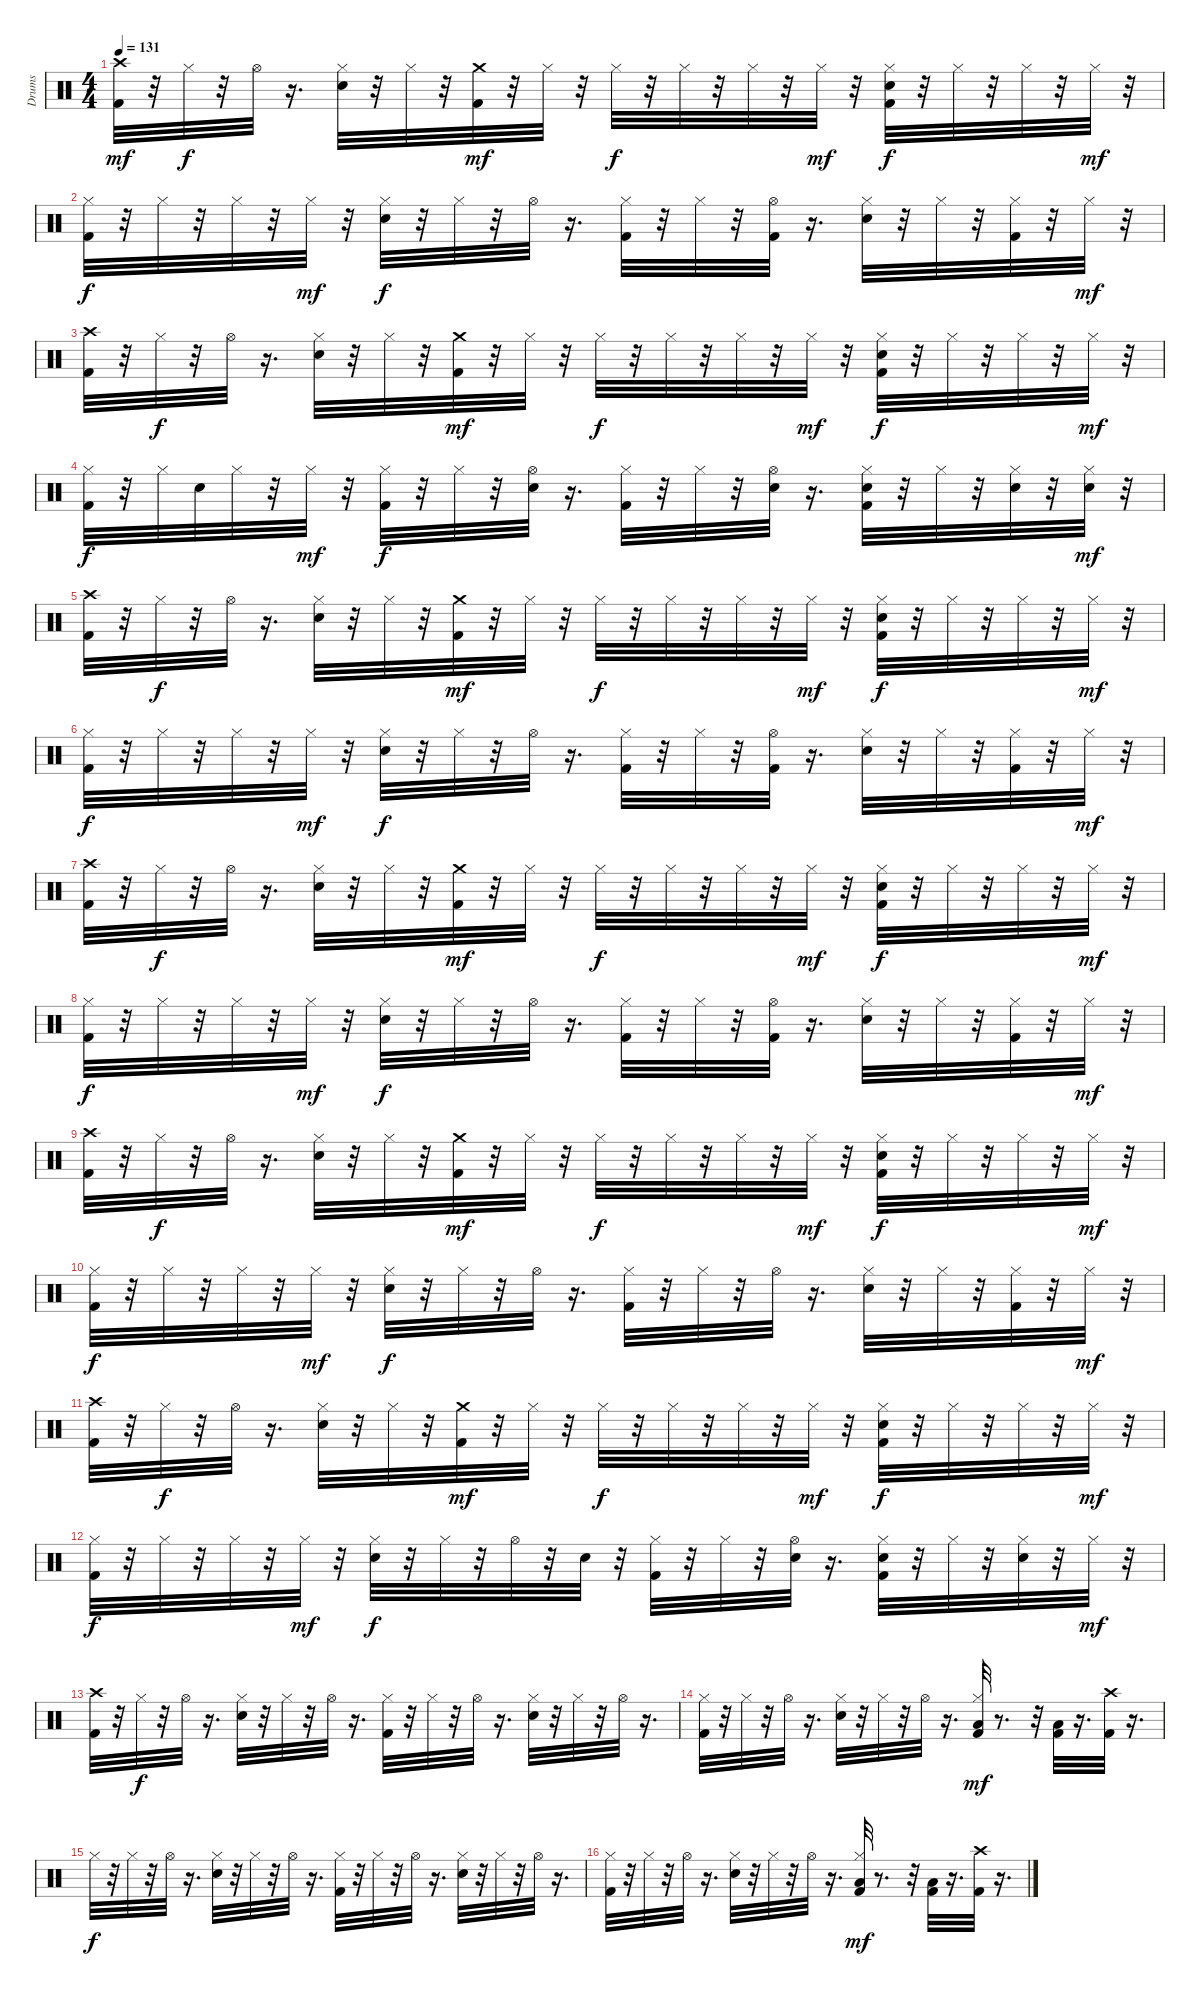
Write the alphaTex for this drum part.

\track ("Drums" "Drums") {instrument percussion}
\staff {score}
\articulation defaults
\ts (4 4)
\tempo 131
\clef neutral
\ks c
("Kick (hit) 2" "Crash high (hit)").32{dy mf} r.32 "Hi-Hat (closed)".32{dy f} r.32 "Hi-Hat (open)".32 r.16{d} ("Snare (hit) 2" "Hi-Hat (closed)").32 r.32 "Hi-Hat (closed)".32 r.32 ("Crash medium (hit)" "Kick (hit) 2").32{dy mf} r.32 "Hi-Hat (closed)".32 r.32 "Hi-Hat (closed)".32{dy f} r.32 "Hi-Hat (closed)".32 r.32 "Hi-Hat (closed)".32 r.32 "Hi-Hat (closed)".32{dy mf} r.32 ("Snare (hit) 2" "Hi-Hat (closed)" "Kick (hit) 2").32{dy f} r.32 "Hi-Hat (closed)".32 r.32 "Hi-Hat (closed)".32 r.32 "Hi-Hat (closed)".32{dy mf} r.32 |
("Kick (hit) 2" "Hi-Hat (closed)").32{dy f} r.32 "Hi-Hat (closed)".32 r.32 "Hi-Hat (closed)".32 r.32 "Hi-Hat (closed)".32{dy mf} r.32 ("Hi-Hat (closed)" "Snare (hit) 2").32{dy f} r.32 "Hi-Hat (closed)".32 r.32 "Hi-Hat (open)".32 r.16{d} ("Hi-Hat (closed)" "Kick (hit) 2").32 r.32 "Hi-Hat (closed)".32 r.32 ("Hi-Hat (open)" "Kick (hit) 2").32 r.16{d} ("Hi-Hat (closed)" "Snare (hit) 2").32 r.32 "Hi-Hat (closed)".32 r.32 ("Hi-Hat (closed)" "Kick (hit) 2").32 r.32 "Hi-Hat (closed)".32{dy mf} r.32 |
("Kick (hit) 2" "Crash high (hit)").32 r.32 "Hi-Hat (closed)".32{dy f} r.32 "Hi-Hat (open)".32 r.16{d} ("Snare (hit) 2" "Hi-Hat (closed)").32 r.32 "Hi-Hat (closed)".32 r.32 ("Crash medium (hit)" "Kick (hit) 2").32{dy mf} r.32 "Hi-Hat (closed)".32 r.32 "Hi-Hat (closed)".32{dy f} r.32 "Hi-Hat (closed)".32 r.32 "Hi-Hat (closed)".32 r.32 "Hi-Hat (closed)".32{dy mf} r.32 ("Snare (hit) 2" "Hi-Hat (closed)" "Kick (hit) 2").32{dy f} r.32 "Hi-Hat (closed)".32 r.32 "Hi-Hat (closed)".32 r.32 "Hi-Hat (closed)".32{dy mf} r.32 |
("Hi-Hat (closed)" "Kick (hit) 2").32{dy f} r.32 "Hi-Hat (closed)".32 "Snare (hit) 2".32 "Hi-Hat (closed)".32 r.32 "Hi-Hat (closed)".32{dy mf} r.32 ("Hi-Hat (closed)" "Kick (hit) 2").32{dy f} r.32 "Hi-Hat (closed)".32 r.32 ("Snare (hit) 2" "Hi-Hat (open)").32 r.16{d} ("Hi-Hat (closed)" "Kick (hit) 2").32 r.32 "Hi-Hat (closed)".32 r.32 ("Snare (hit) 2" "Hi-Hat (open)").32 r.16{d} ("Snare (hit) 2" "Hi-Hat (closed)" "Kick (hit) 2").32 r.32 "Hi-Hat (closed)".32 r.32 ("Snare (hit) 2" "Hi-Hat (closed)").32 r.32 ("Snare (hit) 2" "Hi-Hat (closed)").32{dy mf} r.32 |
("Kick (hit) 2" "Crash high (hit)").32 r.32 "Hi-Hat (closed)".32{dy f} r.32 "Hi-Hat (open)".32 r.16{d} ("Snare (hit) 2" "Hi-Hat (closed)").32 r.32 "Hi-Hat (closed)".32 r.32 ("Crash medium (hit)" "Kick (hit) 2").32{dy mf} r.32 "Hi-Hat (closed)".32 r.32 "Hi-Hat (closed)".32{dy f} r.32 "Hi-Hat (closed)".32 r.32 "Hi-Hat (closed)".32 r.32 "Hi-Hat (closed)".32{dy mf} r.32 ("Snare (hit) 2" "Hi-Hat (closed)" "Kick (hit) 2").32{dy f} r.32 "Hi-Hat (closed)".32 r.32 "Hi-Hat (closed)".32 r.32 "Hi-Hat (closed)".32{dy mf} r.32 |
("Kick (hit) 2" "Hi-Hat (closed)").32{dy f} r.32 "Hi-Hat (closed)".32 r.32 "Hi-Hat (closed)".32 r.32 "Hi-Hat (closed)".32{dy mf} r.32 ("Hi-Hat (closed)" "Snare (hit) 2").32{dy f} r.32 "Hi-Hat (closed)".32 r.32 "Hi-Hat (open)".32 r.16{d} ("Hi-Hat (closed)" "Kick (hit) 2").32 r.32 "Hi-Hat (closed)".32 r.32 ("Hi-Hat (open)" "Kick (hit) 2").32 r.16{d} ("Hi-Hat (closed)" "Snare (hit) 2").32 r.32 "Hi-Hat (closed)".32 r.32 ("Hi-Hat (closed)" "Kick (hit) 2").32 r.32 "Hi-Hat (closed)".32{dy mf} r.32 |
("Kick (hit) 2" "Crash high (hit)").32 r.32 "Hi-Hat (closed)".32{dy f} r.32 "Hi-Hat (open)".32 r.16{d} ("Snare (hit) 2" "Hi-Hat (closed)").32 r.32 "Hi-Hat (closed)".32 r.32 ("Crash medium (hit)" "Kick (hit) 2").32{dy mf} r.32 "Hi-Hat (closed)".32 r.32 "Hi-Hat (closed)".32{dy f} r.32 "Hi-Hat (closed)".32 r.32 "Hi-Hat (closed)".32 r.32 "Hi-Hat (closed)".32{dy mf} r.32 ("Snare (hit) 2" "Hi-Hat (closed)" "Kick (hit) 2").32{dy f} r.32 "Hi-Hat (closed)".32 r.32 "Hi-Hat (closed)".32 r.32 "Hi-Hat (closed)".32{dy mf} r.32 |
("Kick (hit) 2" "Hi-Hat (closed)").32{dy f} r.32 "Hi-Hat (closed)".32 r.32 "Hi-Hat (closed)".32 r.32 "Hi-Hat (closed)".32{dy mf} r.32 ("Hi-Hat (closed)" "Snare (hit) 2").32{dy f} r.32 "Hi-Hat (closed)".32 r.32 "Hi-Hat (open)".32 r.16{d} ("Hi-Hat (closed)" "Kick (hit) 2").32 r.32 "Hi-Hat (closed)".32 r.32 ("Hi-Hat (open)" "Kick (hit) 2").32 r.16{d} ("Hi-Hat (closed)" "Snare (hit) 2").32 r.32 "Hi-Hat (closed)".32 r.32 ("Hi-Hat (closed)" "Kick (hit) 2").32 r.32 "Hi-Hat (closed)".32{dy mf} r.32 |
("Kick (hit) 2" "Crash high (hit)").32 r.32 "Hi-Hat (closed)".32{dy f} r.32 "Hi-Hat (open)".32 r.16{d} ("Snare (hit) 2" "Hi-Hat (closed)").32 r.32 "Hi-Hat (closed)".32 r.32 ("Crash medium (hit)" "Kick (hit) 2").32{dy mf} r.32 "Hi-Hat (closed)".32 r.32 "Hi-Hat (closed)".32{dy f} r.32 "Hi-Hat (closed)".32 r.32 "Hi-Hat (closed)".32 r.32 "Hi-Hat (closed)".32{dy mf} r.32 ("Snare (hit) 2" "Hi-Hat (closed)" "Kick (hit) 2").32{dy f} r.32 "Hi-Hat (closed)".32 r.32 "Hi-Hat (closed)".32 r.32 "Hi-Hat (closed)".32{dy mf} r.32 |
("Kick (hit) 2" "Hi-Hat (closed)").32{dy f} r.32 "Hi-Hat (closed)".32 r.32 "Hi-Hat (closed)".32 r.32 "Hi-Hat (closed)".32{dy mf} r.32 ("Hi-Hat (closed)" "Snare (hit) 2").32{dy f} r.32 "Hi-Hat (closed)".32 r.32 "Hi-Hat (open)".32 r.16{d} ("Hi-Hat (closed)" "Kick (hit) 2").32 r.32 "Hi-Hat (closed)".32 r.32 "Hi-Hat (open)".32 r.16{d} ("Hi-Hat (closed)" "Snare (hit) 2").32 r.32 "Hi-Hat (closed)".32 r.32 ("Hi-Hat (closed)" "Kick (hit) 2").32 r.32 "Hi-Hat (closed)".32{dy mf} r.32 |
("Kick (hit) 2" "Crash high (hit)").32 r.32 "Hi-Hat (closed)".32{dy f} r.32 "Hi-Hat (open)".32 r.16{d} ("Snare (hit) 2" "Hi-Hat (closed)").32 r.32 "Hi-Hat (closed)".32 r.32 ("Crash medium (hit)" "Kick (hit) 2").32{dy mf} r.32 "Hi-Hat (closed)".32 r.32 "Hi-Hat (closed)".32{dy f} r.32 "Hi-Hat (closed)".32 r.32 "Hi-Hat (closed)".32 r.32 "Hi-Hat (closed)".32{dy mf} r.32 ("Snare (hit) 2" "Hi-Hat (closed)" "Kick (hit) 2").32{dy f} r.32 "Hi-Hat (closed)".32 r.32 "Hi-Hat (closed)".32 r.32 "Hi-Hat (closed)".32{dy mf} r.32 |
("Kick (hit) 2" "Hi-Hat (closed)").32{dy f} r.32 "Hi-Hat (closed)".32 r.32 "Hi-Hat (closed)".32 r.32 "Hi-Hat (closed)".32{dy mf} r.32 ("Hi-Hat (closed)" "Snare (hit) 2").32{dy f} r.32 "Hi-Hat (closed)".32 r.32 "Hi-Hat (open)".32 r.32 "Snare (hit) 2".32 r.32 ("Hi-Hat (closed)" "Kick (hit) 2").32 r.32 "Hi-Hat (closed)".32 r.32 ("Snare (hit) 2" "Hi-Hat (open)").32 r.16{d} ("Hi-Hat (closed)" "Kick (hit) 2" "Snare (hit) 2").32 r.32 "Hi-Hat (closed)".32 r.32 ("Snare (hit) 2" "Hi-Hat (closed)").32 r.32 "Hi-Hat (closed)".32{dy mf} r.32 |
("Crash high (hit)" "Kick (hit) 2").32 r.32 "Hi-Hat (closed)".32{dy f} r.32 "Hi-Hat (open)".32 r.16{d} ("Hi-Hat (closed)" "Snare (hit) 2").32 r.32 "Hi-Hat (closed)".32 r.32 "Hi-Hat (open)".32 r.16{d} ("Hi-Hat (closed)" "Kick (hit) 2").32 r.32 "Hi-Hat (closed)".32 r.32 "Hi-Hat (open)".32 r.16{d} ("Snare (hit) 2" "Hi-Hat (closed)").32 r.32 "Hi-Hat (closed)".32 r.32 "Hi-Hat (open)".32 r.16{d} |
("Kick (hit) 2" "Hi-Hat (closed)").32 r.32 "Hi-Hat (closed)".32 r.32 "Hi-Hat (open)".32 r.16{d} ("Snare (hit) 2" "Hi-Hat (closed)").32 r.32 "Hi-Hat (closed)".32 r.32 "Hi-Hat (open)".32 r.16{d} ("Low Floor Tom (hit)" "Kick (hit) 2" "Hi-Hat (closed)").32{dy mf} r.8{d} r.32 ("Low Floor Tom (hit)" "Kick (hit) 2").32 r.16{d} ("Kick (hit) 2" "Crash high (hit)").32 r.16{d} |
"Hi-Hat (closed)".32{dy f} r.32 "Hi-Hat (closed)".32 r.32 "Hi-Hat (open)".32 r.16{d} ("Hi-Hat (closed)" "Snare (hit) 2").32 r.32 "Hi-Hat (closed)".32 r.32 "Hi-Hat (open)".32 r.16{d} ("Hi-Hat (closed)" "Kick (hit) 2").32 r.32 "Hi-Hat (closed)".32 r.32 "Hi-Hat (open)".32 r.16{d} ("Snare (hit) 2" "Hi-Hat (closed)").32 r.32 "Hi-Hat (closed)".32 r.32 "Hi-Hat (open)".32 r.16{d} |
("Kick (hit) 2" "Hi-Hat (closed)").32 r.32 "Hi-Hat (closed)".32 r.32 "Hi-Hat (open)".32 r.16{d} ("Snare (hit) 2" "Hi-Hat (closed)").32 r.32 "Hi-Hat (closed)".32 r.32 "Hi-Hat (open)".32 r.16{d} ("Low Floor Tom (hit)" "Kick (hit) 2" "Hi-Hat (closed)").32{dy mf} r.8{d} r.32 ("Low Floor Tom (hit)" "Kick (hit) 2").32 r.16{d} ("Kick (hit) 2" "Crash high (hit)").32 r.16{d}
